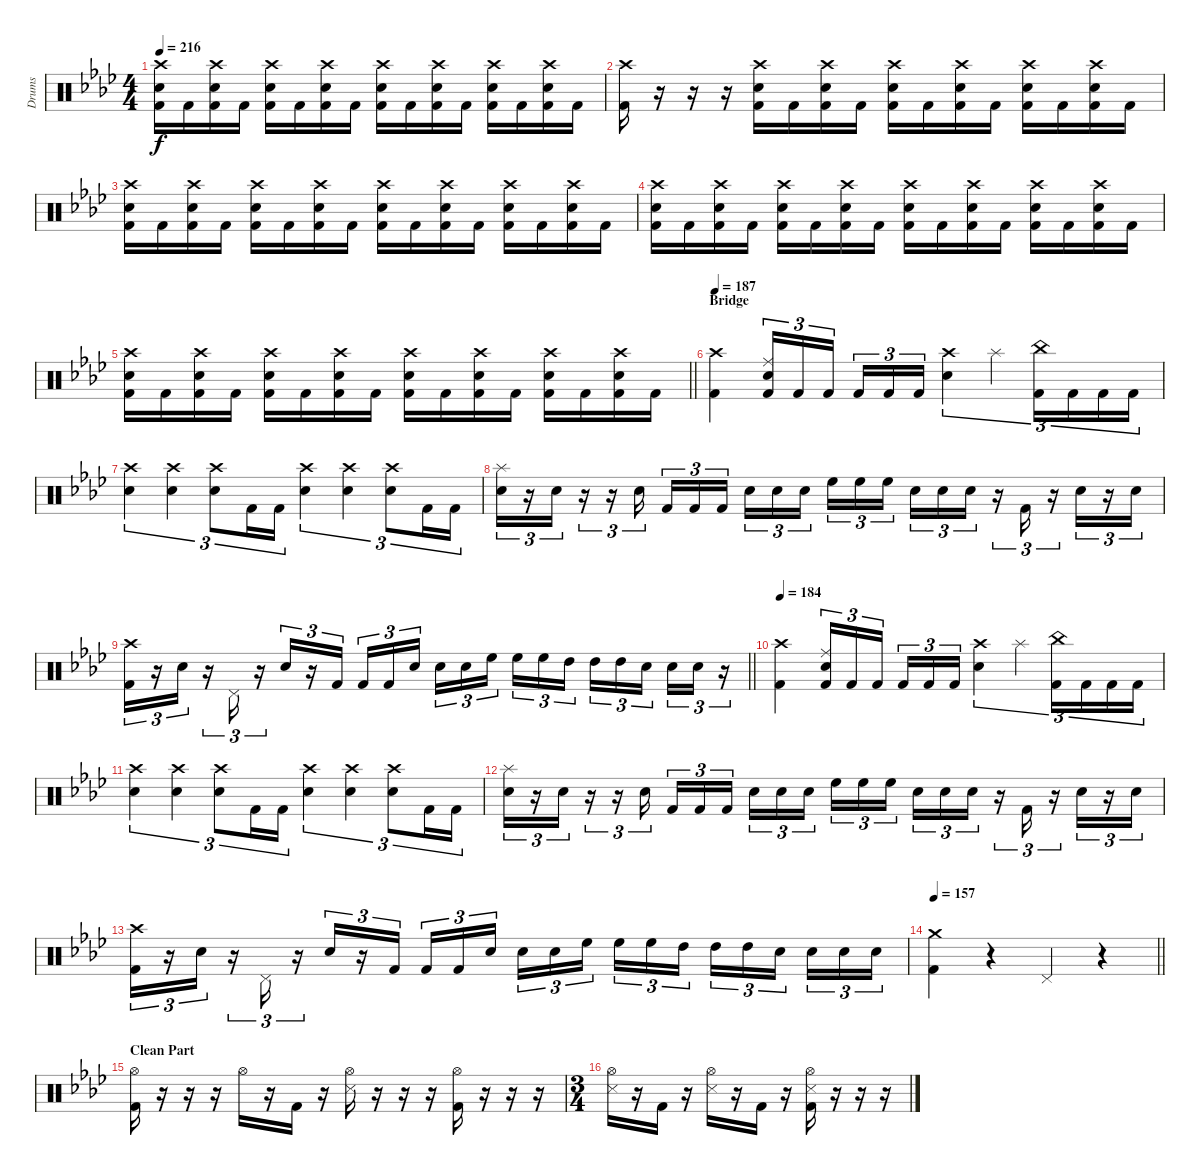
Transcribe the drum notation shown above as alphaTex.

\bracketExtendMode groupsimilarinstruments
\otherSystemsTrackNameOrientation horizontal
\track ("Guyot Begin-Benoit" "Drums") {instrument percussion}
\staff {score}
\articulation defaults
\ts (4 4)
\tempo 216
\clef neutral
\ks ab
("Crash high (hit)"{acc forcenatural} "Snare (hit) 2"{acc forcenatural} "Kick (hit) 2"{acc forcenatural}).16{dy f beam Down} "Kick (hit) 2"{acc forcenatural}.16{beam Down} ("Crash high (hit)"{acc forcenatural} "Snare (hit) 2"{acc forcenatural} "Kick (hit) 2"{acc forcenatural}).16{beam Down} "Kick (hit) 2"{acc forcenatural}.16{beam Down} ("Crash high (hit)"{acc forcenatural} "Snare (hit) 2"{acc forcenatural} "Kick (hit) 2"{acc forcenatural}).16{beam Down} "Kick (hit) 2"{acc forcenatural}.16{beam Down} ("Crash high (hit)"{acc forcenatural} "Snare (hit) 2"{acc forcenatural} "Kick (hit) 2"{acc forcenatural}).16{beam Down} "Kick (hit) 2"{acc forcenatural}.16{beam Down} ("Crash high (hit)"{acc forcenatural} "Snare (hit) 2"{acc forcenatural} "Kick (hit) 2"{acc forcenatural}).16{beam Down} "Kick (hit) 2"{acc forcenatural}.16{beam Down} ("Crash high (hit)"{acc forcenatural} "Snare (hit) 2"{acc forcenatural} "Kick (hit) 2"{acc forcenatural}).16{beam Down} "Kick (hit) 2"{acc forcenatural}.16{beam Down} ("Crash high (hit)"{acc forcenatural} "Snare (hit) 2"{acc forcenatural} "Kick (hit) 2"{acc forcenatural}).16{beam Down} "Kick (hit) 2"{acc forcenatural}.16{beam Down} ("Crash high (hit)"{acc forcenatural} "Snare (hit) 2"{acc forcenatural} "Kick (hit) 2"{acc forcenatural}).16{beam Down} "Kick (hit) 2"{acc forcenatural}.16{beam Down} |
("Crash high (hit)"{acc forcenatural} "Kick (hit) 2"{acc forcenatural}).16{beam Down} r.16{beam Down} r.16{beam Down} r.16{beam Down} ("Crash high (hit)"{acc forcenatural} "Snare (hit) 2"{acc forcenatural} "Kick (hit) 2"{acc forcenatural}).16{beam Down} "Kick (hit) 2"{acc forcenatural}.16{beam Down} ("Crash high (hit)"{acc forcenatural} "Snare (hit) 2"{acc forcenatural} "Kick (hit) 2"{acc forcenatural}).16{beam Down} "Kick (hit) 2"{acc forcenatural}.16{beam Down} ("Crash high (hit)"{acc forcenatural} "Snare (hit) 2"{acc forcenatural} "Kick (hit) 2"{acc forcenatural}).16{beam Down} "Kick (hit) 2"{acc forcenatural}.16{beam Down} ("Crash high (hit)"{acc forcenatural} "Snare (hit) 2"{acc forcenatural} "Kick (hit) 2"{acc forcenatural}).16{beam Down} "Kick (hit) 2"{acc forcenatural}.16{beam Down} ("Crash high (hit)"{acc forcenatural} "Snare (hit) 2"{acc forcenatural} "Kick (hit) 2"{acc forcenatural}).16{beam Down} "Kick (hit) 2"{acc forcenatural}.16{beam Down} ("Crash high (hit)"{acc forcenatural} "Snare (hit) 2"{acc forcenatural} "Kick (hit) 2"{acc forcenatural}).16{beam Down} "Kick (hit) 2"{acc forcenatural}.16{beam Down} |
("Crash high (hit)"{acc forcenatural} "Snare (hit) 2"{acc forcenatural} "Kick (hit) 2"{acc forcenatural}).16{beam Down} "Kick (hit) 2"{acc forcenatural}.16{beam Down} ("Crash high (hit)"{acc forcenatural} "Snare (hit) 2"{acc forcenatural} "Kick (hit) 2"{acc forcenatural}).16{beam Down} "Kick (hit) 2"{acc forcenatural}.16{beam Down} ("Crash high (hit)"{acc forcenatural} "Snare (hit) 2"{acc forcenatural} "Kick (hit) 2"{acc forcenatural}).16{beam Down} "Kick (hit) 2"{acc forcenatural}.16{beam Down} ("Crash high (hit)"{acc forcenatural} "Snare (hit) 2"{acc forcenatural} "Kick (hit) 2"{acc forcenatural}).16{beam Down} "Kick (hit) 2"{acc forcenatural}.16{beam Down} ("Crash high (hit)"{acc forcenatural} "Snare (hit) 2"{acc forcenatural} "Kick (hit) 2"{acc forcenatural}).16{beam Down} "Kick (hit) 2"{acc forcenatural}.16{beam Down} ("Crash high (hit)"{acc forcenatural} "Snare (hit) 2"{acc forcenatural} "Kick (hit) 2"{acc forcenatural}).16{beam Down} "Kick (hit) 2"{acc forcenatural}.16{beam Down} ("Crash high (hit)"{acc forcenatural} "Snare (hit) 2"{acc forcenatural} "Kick (hit) 2"{acc forcenatural}).16{beam Down} "Kick (hit) 2"{acc forcenatural}.16{beam Down} ("Crash high (hit)"{acc forcenatural} "Snare (hit) 2"{acc forcenatural} "Kick (hit) 2"{acc forcenatural}).16{beam Down} "Kick (hit) 2"{acc forcenatural}.16{beam Down} |
("Crash high (hit)"{acc forcenatural} "Snare (hit) 2"{acc forcenatural} "Kick (hit) 2"{acc forcenatural}).16{beam Down} "Kick (hit) 2"{acc forcenatural}.16{beam Down} ("Crash high (hit)"{acc forcenatural} "Snare (hit) 2"{acc forcenatural} "Kick (hit) 2"{acc forcenatural}).16{beam Down} "Kick (hit) 2"{acc forcenatural}.16{beam Down} ("Crash high (hit)"{acc forcenatural} "Snare (hit) 2"{acc forcenatural} "Kick (hit) 2"{acc forcenatural}).16{beam Down} "Kick (hit) 2"{acc forcenatural}.16{beam Down} ("Crash high (hit)"{acc forcenatural} "Snare (hit) 2"{acc forcenatural} "Kick (hit) 2"{acc forcenatural}).16{beam Down} "Kick (hit) 2"{acc forcenatural}.16{beam Down} ("Crash high (hit)"{acc forcenatural} "Snare (hit) 2"{acc forcenatural} "Kick (hit) 2"{acc forcenatural}).16{beam Down} "Kick (hit) 2"{acc forcenatural}.16{beam Down} ("Crash high (hit)"{acc forcenatural} "Snare (hit) 2"{acc forcenatural} "Kick (hit) 2"{acc forcenatural}).16{beam Down} "Kick (hit) 2"{acc forcenatural}.16{beam Down} ("Crash high (hit)"{acc forcenatural} "Snare (hit) 2"{acc forcenatural} "Kick (hit) 2"{acc forcenatural}).16{beam Down} "Kick (hit) 2"{acc forcenatural}.16{beam Down} ("Crash high (hit)"{acc forcenatural} "Snare (hit) 2"{acc forcenatural} "Kick (hit) 2"{acc forcenatural}).16{beam Down} "Kick (hit) 2"{acc forcenatural}.16{beam Down} |
\barLineRight lightlight
("Crash high (hit)"{acc forcenatural} "Snare (hit) 2"{acc forcenatural} "Kick (hit) 2"{acc forcenatural}).16{beam Down} "Kick (hit) 2"{acc forcenatural}.16{beam Down} ("Crash high (hit)"{acc forcenatural} "Snare (hit) 2"{acc forcenatural} "Kick (hit) 2"{acc forcenatural}).16{beam Down} "Kick (hit) 2"{acc forcenatural}.16{beam Down} ("Crash high (hit)"{acc forcenatural} "Snare (hit) 2"{acc forcenatural} "Kick (hit) 2"{acc forcenatural}).16{beam Down} "Kick (hit) 2"{acc forcenatural}.16{beam Down} ("Crash high (hit)"{acc forcenatural} "Snare (hit) 2"{acc forcenatural} "Kick (hit) 2"{acc forcenatural}).16{beam Down} "Kick (hit) 2"{acc forcenatural}.16{beam Down} ("Crash high (hit)"{acc forcenatural} "Snare (hit) 2"{acc forcenatural} "Kick (hit) 2"{acc forcenatural}).16{beam Down} "Kick (hit) 2"{acc forcenatural}.16{beam Down} ("Crash high (hit)"{acc forcenatural} "Snare (hit) 2"{acc forcenatural} "Kick (hit) 2"{acc forcenatural}).16{beam Down} "Kick (hit) 2"{acc forcenatural}.16{beam Down} ("Crash high (hit)"{acc forcenatural} "Snare (hit) 2"{acc forcenatural} "Kick (hit) 2"{acc forcenatural}).16{beam Down} "Kick (hit) 2"{acc forcenatural}.16{beam Down} ("Crash high (hit)"{acc forcenatural} "Snare (hit) 2"{acc forcenatural} "Kick (hit) 2"{acc forcenatural}).16{beam Down} "Kick (hit) 2"{acc forcenatural}.16{beam Down} |
\section ("" "Bridge ")
\tempo 187
("Crash high (hit)"{acc forcenatural} "Kick (hit) 2"{acc forcenatural}).4{beam Down} ("Ride (middle)"{acc forcenatural} "Snare (hit) 2"{acc forcenatural} "Kick (hit) 2"{acc forcenatural}).16{tu (3 2) beam Up} "Kick (hit) 2"{acc forcenatural}.16{tu (3 2) beam Up} "Kick (hit) 2"{acc forcenatural}.16{tu (3 2) beam Up} "Kick (hit) 2"{acc forcenatural}.16{tu (3 2) beam Up} "Kick (hit) 2"{acc forcenatural}.16{tu (3 2) beam Up} "Kick (hit) 2"{acc forcenatural}.16{tu (3 2) beam Up} ("Crash high (hit)"{acc forcenatural} "Snare (hit) 2"{acc forcenatural}).4{tu (3 2) beam Down} "Splash (hit)"{acc forcenatural}.4{tu (3 2) beam Down} ("China (hit)"{acc forcenatural} "Kick (hit) 2"{acc forcenatural}).16{tu (3 2) beam Down} "Kick (hit) 2"{acc forcenatural}.16{tu (3 2) beam Up} "Kick (hit) 2"{acc forcenatural}.16{tu (3 2) beam Up} "Kick (hit) 2"{acc forcenatural}.16{tu (3 2) beam Up} |
("Crash high (hit)"{acc forcenatural} "Snare (hit) 2"{acc forcenatural}).4{tu (3 2) beam Down} ("Crash high (hit)"{acc forcenatural} "Snare (hit) 2"{acc forcenatural}).4{tu (3 2) beam Down} ("Crash high (hit)"{acc forcenatural} "Snare (hit) 2"{acc forcenatural}).8{tu (3 2) beam Down} "Kick (hit) 2"{acc forcenatural}.16{tu (3 2) beam Down} "Kick (hit) 2"{acc forcenatural}.16{tu (3 2) beam Down} ("Crash high (hit)"{acc forcenatural} "Snare (hit) 2"{acc forcenatural}).4{tu (3 2) beam Down} ("Crash high (hit)"{acc forcenatural} "Snare (hit) 2"{acc forcenatural}).4{tu (3 2) beam Down} ("Crash high (hit)"{acc forcenatural} "Snare (hit) 2"{acc forcenatural}).8{tu (3 2) beam Down} "Kick (hit) 2"{acc forcenatural}.16{tu (3 2) beam Down} "Kick (hit) 2"{acc forcenatural}.16{tu (3 2) beam Down} |
("Splash (hit)"{acc forcenatural} "Snare (hit) 2"{acc forcenatural}).16{tu (3 2) beam Down} r.16{tu (3 2) beam Down} "Snare (hit) 2"{acc forcenatural}.16{tu (3 2) beam Down} r.16{tu (3 2) beam Down} r.16{tu (3 2) beam Down} "Snare (hit) 2"{acc forcenatural}.16{tu (3 2) beam Down} "Kick (hit) 2"{acc forcenatural}.16{tu (3 2) beam Up} "Kick (hit) 2"{acc forcenatural}.16{tu (3 2) beam Up} "Kick (hit) 2"{acc forcenatural}.16{tu (3 2) beam Up} "Snare (hit) 2"{acc forcenatural}.16{tu (3 2) beam Down} "Snare (hit) 2"{acc forcenatural}.16{tu (3 2) beam Down} "Snare (hit) 2"{acc forcenatural}.16{tu (3 2) beam Down} "High Floor Tom (hit)"{acc forcenatural}.16{tu (3 2) beam Down} "High Floor Tom (hit)"{acc forcenatural}.16{tu (3 2) beam Down} "High Floor Tom (hit)"{acc forcenatural}.16{tu (3 2) beam Down} "Snare (hit) 2"{acc forcenatural}.16{tu (3 2) beam Down} "Snare (hit) 2"{acc forcenatural}.16{tu (3 2) beam Down} "Snare (hit) 2"{acc forcenatural}.16{tu (3 2) beam Down} r.16{tu (3 2) beam Down} "Kick (hit) 2"{acc forcenatural}.16{tu (3 2) beam Up} r.16{tu (3 2) beam Up} "Snare (hit) 2"{acc forcenatural}.16{tu (3 2) beam Down} r.16{tu (3 2) beam Down} "Snare (hit) 2"{acc forcenatural}.16{tu (3 2) beam Down} |
\barLineRight lightlight
("Crash high (hit)"{acc forcenatural} "Kick (hit) 2"{acc forcenatural}).16{tu (3 2) beam Down} r.16{tu (3 2) beam Down} "Snare (hit) 2"{acc forcenatural}.16{tu (3 2) beam Down} r.16{tu (3 2) beam Down} "Pedal Hi-Hat (hit)"{acc forcenatural}.16{tu (3 2) beam Up} r.16{tu (3 2) beam Up} "Snare (hit) 2"{acc forcenatural}.16{tu (3 2) beam Up} r.16{tu (3 2) beam Up} "Kick (hit) 2"{acc forcenatural}.16{tu (3 2) beam Up} "Kick (hit) 2"{acc forcenatural}.16{tu (3 2) beam Up} "Kick (hit) 2"{acc forcenatural}.16{tu (3 2) beam Up} "Snare (hit) 2"{acc forcenatural}.16{tu (3 2) beam Up} "Snare (hit) 2"{acc forcenatural}.16{tu (3 2) beam Down} "Snare (hit) 2"{acc forcenatural}.16{tu (3 2) beam Down} "High Floor Tom (hit)"{acc forcenatural}.16{tu (3 2) beam Down} "High Floor Tom (hit)"{acc forcenatural}.16{tu (3 2) beam Down} "High Floor Tom (hit)"{acc forcenatural}.16{tu (3 2) beam Down} "High Tom (hit)"{acc forcenatural}.16{tu (3 2) beam Down} "High Tom (hit)"{acc forcenatural}.16{tu (3 2) beam Down} "High Tom (hit)"{acc forcenatural}.16{tu (3 2) beam Down} "Snare (hit) 2"{acc forcenatural}.16{tu (3 2) beam Down} "Snare (hit) 2"{acc forcenatural}.16{tu (3 2) beam Down} "Snare (hit) 2"{acc forcenatural}.16{tu (3 2) beam Down} r.16{tu (3 2) beam Down} |
\tempo 184
("Crash high (hit)"{acc forcenatural} "Kick (hit) 2"{acc forcenatural}).4{beam Down} ("Ride (middle)"{acc forcenatural} "Snare (hit) 2"{acc forcenatural} "Kick (hit) 2"{acc forcenatural}).16{tu (3 2) beam Up} "Kick (hit) 2"{acc forcenatural}.16{tu (3 2) beam Up} "Kick (hit) 2"{acc forcenatural}.16{tu (3 2) beam Up} "Kick (hit) 2"{acc forcenatural}.16{tu (3 2) beam Up} "Kick (hit) 2"{acc forcenatural}.16{tu (3 2) beam Up} "Kick (hit) 2"{acc forcenatural}.16{tu (3 2) beam Up} ("Crash high (hit)"{acc forcenatural} "Snare (hit) 2"{acc forcenatural}).4{tu (3 2) beam Down} "Splash (hit)"{acc forcenatural}.4{tu (3 2) beam Down} ("China (hit)"{acc forcenatural} "Kick (hit) 2"{acc forcenatural}).16{tu (3 2) beam Down} "Kick (hit) 2"{acc forcenatural}.16{tu (3 2) beam Up} "Kick (hit) 2"{acc forcenatural}.16{tu (3 2) beam Up} "Kick (hit) 2"{acc forcenatural}.16{tu (3 2) beam Up} |
("Crash high (hit)"{acc forcenatural} "Snare (hit) 2"{acc forcenatural}).4{tu (3 2) beam Down} ("Crash high (hit)"{acc forcenatural} "Snare (hit) 2"{acc forcenatural}).4{tu (3 2) beam Down} ("Crash high (hit)"{acc forcenatural} "Snare (hit) 2"{acc forcenatural}).8{tu (3 2) beam Down} "Kick (hit) 2"{acc forcenatural}.16{tu (3 2) beam Down} "Kick (hit) 2"{acc forcenatural}.16{tu (3 2) beam Down} ("Crash high (hit)"{acc forcenatural} "Snare (hit) 2"{acc forcenatural}).4{tu (3 2) beam Down} ("Crash high (hit)"{acc forcenatural} "Snare (hit) 2"{acc forcenatural}).4{tu (3 2) beam Down} ("Crash high (hit)"{acc forcenatural} "Snare (hit) 2"{acc forcenatural}).8{tu (3 2) beam Down} "Kick (hit) 2"{acc forcenatural}.16{tu (3 2) beam Down} "Kick (hit) 2"{acc forcenatural}.16{tu (3 2) beam Down} |
("Splash (hit)"{acc forcenatural} "Snare (hit) 2"{acc forcenatural}).16{tu (3 2) beam Down} r.16{tu (3 2) beam Down} "Snare (hit) 2"{acc forcenatural}.16{tu (3 2) beam Down} r.16{tu (3 2) beam Down} r.16{tu (3 2) beam Down} "Snare (hit) 2"{acc forcenatural}.16{tu (3 2) beam Down} "Kick (hit) 2"{acc forcenatural}.16{tu (3 2) beam Up} "Kick (hit) 2"{acc forcenatural}.16{tu (3 2) beam Up} "Kick (hit) 2"{acc forcenatural}.16{tu (3 2) beam Up} "Snare (hit) 2"{acc forcenatural}.16{tu (3 2) beam Down} "Snare (hit) 2"{acc forcenatural}.16{tu (3 2) beam Down} "Snare (hit) 2"{acc forcenatural}.16{tu (3 2) beam Down} "High Floor Tom (hit)"{acc forcenatural}.16{tu (3 2) beam Down} "High Floor Tom (hit)"{acc forcenatural}.16{tu (3 2) beam Down} "High Floor Tom (hit)"{acc forcenatural}.16{tu (3 2) beam Down} "Snare (hit) 2"{acc forcenatural}.16{tu (3 2) beam Down} "Snare (hit) 2"{acc forcenatural}.16{tu (3 2) beam Down} "Snare (hit) 2"{acc forcenatural}.16{tu (3 2) beam Down} r.16{tu (3 2) beam Down} "Kick (hit) 2"{acc forcenatural}.16{tu (3 2) beam Up} r.16{tu (3 2) beam Up} "Snare (hit) 2"{acc forcenatural}.16{tu (3 2) beam Down} r.16{tu (3 2) beam Down} "Snare (hit) 2"{acc forcenatural}.16{tu (3 2) beam Down} |
("Crash high (hit)"{acc forcenatural} "Kick (hit) 2"{acc forcenatural}).16{tu (3 2) beam Down} r.16{tu (3 2) beam Down} "Snare (hit) 2"{acc forcenatural}.16{tu (3 2) beam Down} r.16{tu (3 2) beam Down} "Pedal Hi-Hat (hit)"{acc forcenatural}.16{tu (3 2) beam Up} r.16{tu (3 2) beam Up} "Snare (hit) 2"{acc forcenatural}.16{tu (3 2) beam Up} r.16{tu (3 2) beam Up} "Kick (hit) 2"{acc forcenatural}.16{tu (3 2) beam Up} "Kick (hit) 2"{acc forcenatural}.16{tu (3 2) beam Up} "Kick (hit) 2"{acc forcenatural}.16{tu (3 2) beam Up} "Snare (hit) 2"{acc forcenatural}.16{tu (3 2) beam Up} "Snare (hit) 2"{acc forcenatural}.16{tu (3 2) beam Down} "Snare (hit) 2"{acc forcenatural}.16{tu (3 2) beam Down} "High Floor Tom (hit)"{acc forcenatural}.16{tu (3 2) beam Down} "High Floor Tom (hit)"{acc forcenatural}.16{tu (3 2) beam Down} "High Floor Tom (hit)"{acc forcenatural}.16{tu (3 2) beam Down} "High Tom (hit)"{acc forcenatural}.16{tu (3 2) beam Down} "High Tom (hit)"{acc forcenatural}.16{tu (3 2) beam Down} "High Tom (hit)"{acc forcenatural}.16{tu (3 2) beam Down} "Snare (hit) 2"{acc forcenatural}.16{tu (3 2) beam Down} "Snare (hit) 2"{acc forcenatural}.16{tu (3 2) beam Down} "Snare (hit) 2"{acc forcenatural}.16{tu (3 2) beam Down} "Snare (hit) 2"{acc forcenatural}.16{tu (3 2) beam Down} |
\tempo 157
\barLineRight lightlight
("Crash medium (hit)"{acc forcenatural} "Kick (hit) 2"{acc forcenatural}).4{beam Down} r.4{beam Down} "Pedal Hi-Hat (hit)"{acc forcenatural}.4{beam Up} r.4{beam Up} |
\section ("" "Clean Part")
("Hi-Hat (open)"{acc forcenatural} "Kick (hit) 2"{acc forcenatural}).16{beam Down} r.16{beam Down} r.16{beam Down} r.16{beam Down} "Hi-Hat (open)"{acc forcenatural}.16{beam Down} r.16{beam Down} "Kick (hit) 2"{acc forcenatural}.16{beam Down} r.16{beam Down} ("Hi-Hat (open)"{acc forcenatural} "Snare (side stick) 3"{acc forcenatural}).16{beam Down} r.16{beam Down} r.16{beam Down} r.16{beam Down} ("Hi-Hat (open)"{acc forcenatural} "Kick (hit) 2"{acc forcenatural}).16{beam Down} r.16{beam Down} r.16{beam Down} r.16{beam Down} |
\ts (3 4)
\beaming (8 2 2 2 2)
("Hi-Hat (open)"{acc forcenatural} "Snare (side stick) 3"{acc forcenatural}).16{beam Down} r.16{beam Down} "Kick (hit) 2"{acc forcenatural}.16{beam Down} r.16{beam Down} ("Hi-Hat (open)"{acc forcenatural} "Snare (side stick) 3"{acc forcenatural}).16{beam Down} r.16{beam Down} "Kick (hit) 2"{acc forcenatural}.16{beam Down} r.16{beam Down} ("Hi-Hat (open)"{acc forcenatural} "Snare (side stick) 3"{acc forcenatural} "Kick (hit) 2"{acc forcenatural}).16{beam Down} r.16{beam Down} r.16{beam Down} r.16{beam Down}
